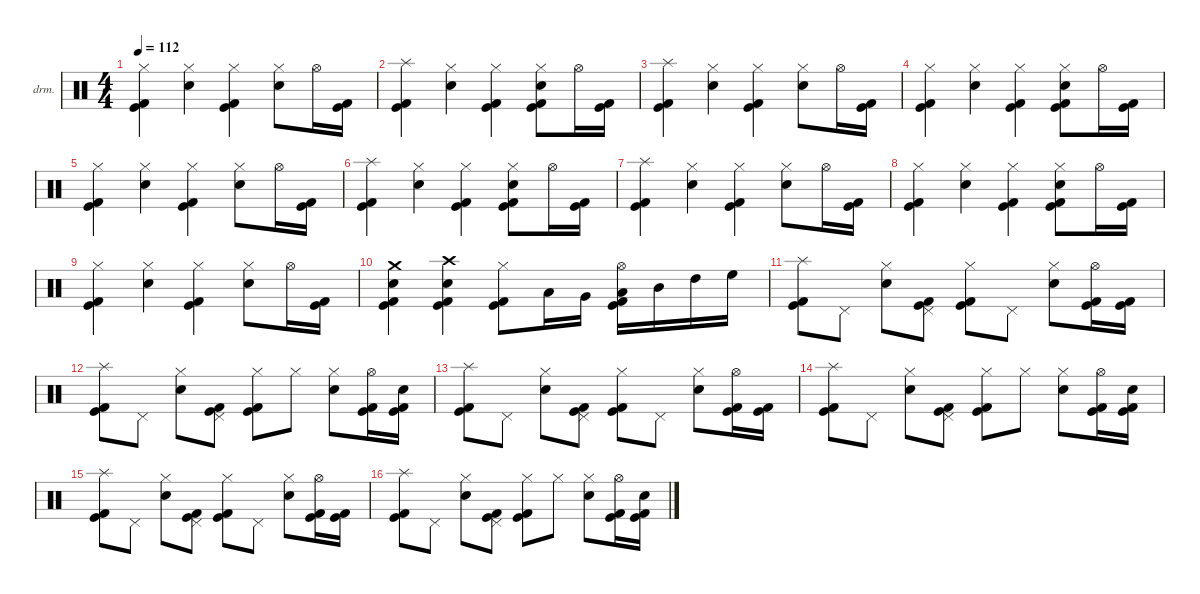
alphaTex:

\defaultSystemsLayout 4
\hideDynamics
\bracketExtendMode nobrackets
\firstSystemTrackNameOrientation horizontal
\otherSystemsTrackNameOrientation horizontal
\track ("Drums" "drm.") {instrument percussion}
\staff {score}
\articulation defaults
\ts (4 4)
\tempo 112
\clef neutral
\ks c
("Hi-Hat (closed)" "Kick (hit) 2" "Kick (hit)").4{dy f} ("Hi-Hat (closed)" "Snare (hit) 2").4 ("Hi-Hat (closed)" "Kick (hit) 2" "Kick (hit)").4 ("Hi-Hat (closed)" "Snare (hit) 2").8 "Hi-Hat (open)".16 ("Kick (hit) 2" "Kick (hit)").16 |
("Splash (hit)" "Kick (hit) 2" "Kick (hit)").4 ("Hi-Hat (closed)" "Snare (hit) 2").4 ("Hi-Hat (closed)" "Kick (hit) 2" "Kick (hit)").4 ("Hi-Hat (closed)" "Snare (hit) 2" "Kick (hit) 2" "Kick (hit)").8 "Hi-Hat (open)".16 ("Kick (hit) 2" "Kick (hit)").16 |
("Splash (hit)" "Kick (hit) 2" "Kick (hit)").4 ("Hi-Hat (closed)" "Snare (hit) 2").4 ("Hi-Hat (closed)" "Kick (hit) 2" "Kick (hit)").4 ("Hi-Hat (closed)" "Snare (hit) 2").8 "Hi-Hat (open)".16 ("Kick (hit) 2" "Kick (hit)").16 |
("Hi-Hat (closed)" "Kick (hit) 2" "Kick (hit)").4 ("Hi-Hat (closed)" "Snare (hit) 2").4 ("Hi-Hat (closed)" "Kick (hit) 2" "Kick (hit)").4 ("Hi-Hat (closed)" "Snare (hit) 2" "Kick (hit) 2" "Kick (hit)").8 "Hi-Hat (open)".16 ("Kick (hit) 2" "Kick (hit)").16 |
("Hi-Hat (closed)" "Kick (hit) 2" "Kick (hit)").4 ("Hi-Hat (closed)" "Snare (hit) 2").4 ("Hi-Hat (closed)" "Kick (hit) 2" "Kick (hit)").4 ("Hi-Hat (closed)" "Snare (hit) 2").8 "Hi-Hat (open)".16 ("Kick (hit) 2" "Kick (hit)").16 |
("Splash (hit)" "Kick (hit) 2" "Kick (hit)").4 ("Hi-Hat (closed)" "Snare (hit) 2").4 ("Hi-Hat (closed)" "Kick (hit) 2" "Kick (hit)").4 ("Hi-Hat (closed)" "Snare (hit) 2" "Kick (hit) 2" "Kick (hit)").8 "Hi-Hat (open)".16 ("Kick (hit) 2" "Kick (hit)").16 |
("Splash (hit)" "Kick (hit) 2" "Kick (hit)").4 ("Hi-Hat (closed)" "Snare (hit) 2").4 ("Hi-Hat (closed)" "Kick (hit) 2" "Kick (hit)").4 ("Hi-Hat (closed)" "Snare (hit) 2").8 "Hi-Hat (open)".16 ("Kick (hit) 2" "Kick (hit)").16 |
("Hi-Hat (closed)" "Kick (hit) 2" "Kick (hit)").4 ("Hi-Hat (closed)" "Snare (hit) 2").4 ("Hi-Hat (closed)" "Kick (hit) 2" "Kick (hit)").4 ("Hi-Hat (closed)" "Snare (hit) 2" "Kick (hit) 2" "Kick (hit)").8 "Hi-Hat (open)".16 ("Kick (hit) 2" "Kick (hit)").16 |
("Hi-Hat (closed)" "Kick (hit) 2" "Kick (hit)").4 ("Hi-Hat (closed)" "Snare (hit) 2").4 ("Hi-Hat (closed)" "Kick (hit) 2" "Kick (hit)").4 ("Hi-Hat (closed)" "Snare (hit) 2").8 "Hi-Hat (open)".16 ("Kick (hit) 2" "Kick (hit)").16 |
("Crash medium (hit)" "Snare (hit) 2" "Kick (hit) 2" "Kick (hit)").4 ("Crash high (hit)" "Snare (hit) 2" "Kick (hit) 2" "Kick (hit)").4 ("Hi-Hat (closed)" "Kick (hit) 2" "Kick (hit)").8 "Low Tom (hit)".16 "Very Low Tom (hit)".16 ("Hi-Hat (open)" "Low Floor Tom (hit)" "Kick (hit) 2" "Kick (hit)").16 "Mid Tom (hit)".16 "High Tom (hit)".16 "High Floor Tom (hit)".16 |
("Splash (hit)" "Kick (hit) 2" "Kick (hit)").8 "Pedal Hi-Hat (hit)".8{dy ff} ("Hi-Hat (closed)" "Snare (hit) 2").8{dy f} ("Pedal Hi-Hat (hit)" "Kick (hit)" "Kick (hit) 2").8{dy ff} ("Hi-Hat (closed)" "Kick (hit)" "Kick (hit) 2").8{dy f} "Pedal Hi-Hat (hit)".8{dy ff} ("Hi-Hat (closed)" "Snare (hit) 2").8{dy f} ("Hi-Hat (open)" "Kick (hit) 2" "Kick (hit)").16 ("Kick (hit) 2" "Kick (hit)").16 |
("Splash (hit)" "Kick (hit) 2" "Kick (hit)").8 "Pedal Hi-Hat (hit)".8{dy ff} ("Hi-Hat (closed)" "Snare (hit) 2").8{dy f} ("Pedal Hi-Hat (hit)" "Kick (hit)" "Kick (hit) 2").8{dy ff} ("Hi-Hat (closed)" "Kick (hit)" "Kick (hit) 2").8{dy f} "Hi-Hat (closed)".8{dy ff} ("Hi-Hat (closed)" "Snare (hit) 2").8{dy f} ("Hi-Hat (open)" "Kick (hit) 2" "Kick (hit)").16 ("Snare (hit) 2" "Kick (hit) 2" "Kick (hit)").16 |
("Splash (hit)" "Kick (hit) 2" "Kick (hit)").8 "Pedal Hi-Hat (hit)".8{dy ff} ("Hi-Hat (closed)" "Snare (hit) 2").8{dy f} ("Pedal Hi-Hat (hit)" "Kick (hit)" "Kick (hit) 2").8{dy ff} ("Hi-Hat (closed)" "Kick (hit)" "Kick (hit) 2").8{dy f} "Pedal Hi-Hat (hit)".8{dy ff} ("Hi-Hat (closed)" "Snare (hit) 2").8{dy f} ("Hi-Hat (open)" "Kick (hit) 2" "Kick (hit)").16 ("Kick (hit) 2" "Kick (hit)").16 |
("Splash (hit)" "Kick (hit) 2" "Kick (hit)").8 "Pedal Hi-Hat (hit)".8{dy ff} ("Hi-Hat (closed)" "Snare (hit) 2").8{dy f} ("Pedal Hi-Hat (hit)" "Kick (hit)" "Kick (hit) 2").8{dy ff} ("Hi-Hat (closed)" "Kick (hit)" "Kick (hit) 2").8{dy f} "Hi-Hat (closed)".8{dy ff} ("Hi-Hat (closed)" "Snare (hit) 2").8{dy f} ("Hi-Hat (open)" "Kick (hit) 2" "Kick (hit)").16 ("Snare (hit) 2" "Kick (hit) 2" "Kick (hit)").16 |
("Splash (hit)" "Kick (hit) 2" "Kick (hit)").8 "Pedal Hi-Hat (hit)".8{dy ff} ("Hi-Hat (closed)" "Snare (hit) 2").8{dy f} ("Pedal Hi-Hat (hit)" "Kick (hit)" "Kick (hit) 2").8{dy ff} ("Hi-Hat (closed)" "Kick (hit)" "Kick (hit) 2").8{dy f} "Pedal Hi-Hat (hit)".8{dy ff} ("Hi-Hat (closed)" "Snare (hit) 2").8{dy f} ("Hi-Hat (open)" "Kick (hit) 2" "Kick (hit)").16 ("Kick (hit) 2" "Kick (hit)").16 |
("Splash (hit)" "Kick (hit) 2" "Kick (hit)").8 "Pedal Hi-Hat (hit)".8{dy ff} ("Hi-Hat (closed)" "Snare (hit) 2").8{dy f} ("Pedal Hi-Hat (hit)" "Kick (hit)" "Kick (hit) 2").8{dy ff} ("Hi-Hat (closed)" "Kick (hit)" "Kick (hit) 2").8{dy f} "Hi-Hat (closed)".8{dy ff} ("Hi-Hat (closed)" "Snare (hit) 2").8{dy f} ("Hi-Hat (open)" "Kick (hit) 2" "Kick (hit)").16 ("Snare (hit) 2" "Kick (hit) 2" "Kick (hit)").16
